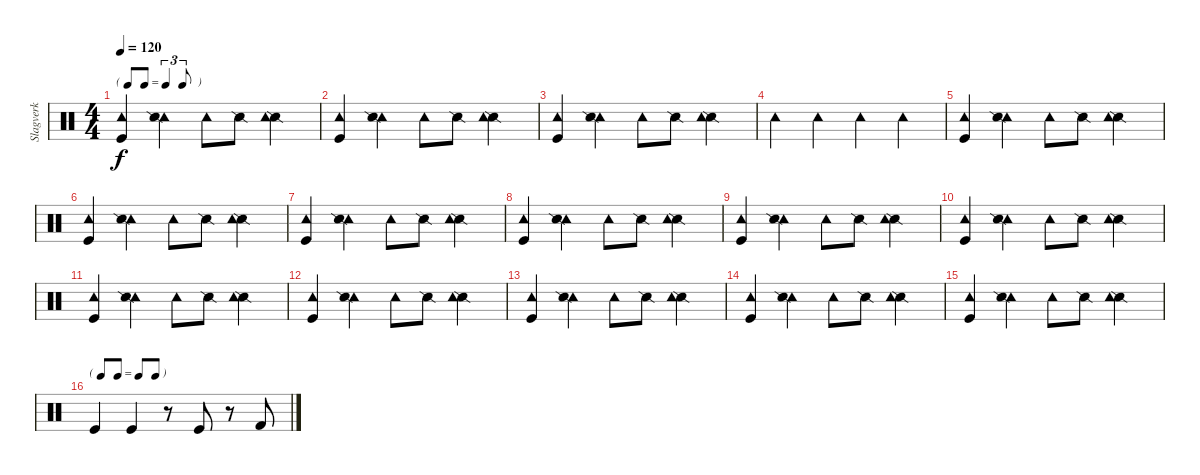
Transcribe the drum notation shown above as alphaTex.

\track ("Slagverk" "Slagverk") {instrument percussion}
\staff {score}
\articulation defaults
\ts (4 4)
\tf triplet8th
\tempo 120
\clef neutral
\ks c
("Tambourine (hit)" "Kick (hit)").4{dy f} ("Tambourine (hit)" "Snare (side stick) 2").4 "Tambourine (hit)".8 "Snare (side stick) 2".8 ("Snare (side stick) 2" "Tambourine (hit)").4 |
("Tambourine (hit)" "Kick (hit)").4 ("Tambourine (hit)" "Snare (side stick) 2").4 "Tambourine (hit)".8 "Snare (side stick) 2".8 ("Snare (side stick) 2" "Tambourine (hit)").4 |
("Tambourine (hit)" "Kick (hit)").4 ("Tambourine (hit)" "Snare (side stick) 2").4 "Tambourine (hit)".8 "Snare (side stick) 2".8 ("Snare (side stick) 2" "Tambourine (hit)").4 |
"Tambourine (hit)".4 "Tambourine (hit)".4 "Tambourine (hit)".4 "Tambourine (hit)".4 |
("Tambourine (hit)" "Kick (hit)").4 ("Tambourine (hit)" "Snare (side stick) 2").4 "Tambourine (hit)".8 "Snare (side stick) 2".8 ("Snare (side stick) 2" "Tambourine (hit)").4 |
("Tambourine (hit)" "Kick (hit)").4 ("Tambourine (hit)" "Snare (side stick) 2").4 "Tambourine (hit)".8 "Snare (side stick) 2".8 ("Snare (side stick) 2" "Tambourine (hit)").4 |
("Tambourine (hit)" "Kick (hit)").4 ("Tambourine (hit)" "Snare (side stick) 2").4 "Tambourine (hit)".8 "Snare (side stick) 2".8 ("Snare (side stick) 2" "Tambourine (hit)").4 |
("Tambourine (hit)" "Kick (hit)").4 ("Tambourine (hit)" "Snare (side stick) 2").4 "Tambourine (hit)".8 "Snare (side stick) 2".8 ("Snare (side stick) 2" "Tambourine (hit)").4 |
("Tambourine (hit)" "Kick (hit)").4 ("Tambourine (hit)" "Snare (side stick) 2").4 "Tambourine (hit)".8 "Snare (side stick) 2".8 ("Snare (side stick) 2" "Tambourine (hit)").4 |
("Tambourine (hit)" "Kick (hit)").4 ("Tambourine (hit)" "Snare (side stick) 2").4 "Tambourine (hit)".8 "Snare (side stick) 2".8 ("Snare (side stick) 2" "Tambourine (hit)").4 |
("Tambourine (hit)" "Kick (hit)").4 ("Tambourine (hit)" "Snare (side stick) 2").4 "Tambourine (hit)".8 "Snare (side stick) 2".8 ("Snare (side stick) 2" "Tambourine (hit)").4 |
("Tambourine (hit)" "Kick (hit)").4 ("Tambourine (hit)" "Snare (side stick) 2").4 "Tambourine (hit)".8 "Snare (side stick) 2".8 ("Snare (side stick) 2" "Tambourine (hit)").4 |
("Tambourine (hit)" "Kick (hit)").4 ("Tambourine (hit)" "Snare (side stick) 2").4 "Tambourine (hit)".8 "Snare (side stick) 2".8 ("Snare (side stick) 2" "Tambourine (hit)").4 |
("Tambourine (hit)" "Kick (hit)").4 ("Tambourine (hit)" "Snare (side stick) 2").4 "Tambourine (hit)".8 "Snare (side stick) 2".8 ("Snare (side stick) 2" "Tambourine (hit)").4 |
("Tambourine (hit)" "Kick (hit)").4 ("Tambourine (hit)" "Snare (side stick) 2").4 "Tambourine (hit)".8 "Snare (side stick) 2".8 ("Snare (side stick) 2" "Tambourine (hit)").4 |
\tf none "Kick (hit)".4 "Kick (hit)".4
r.8 "Kick (hit)".8 r.8 "Kick (hit) 2".8
